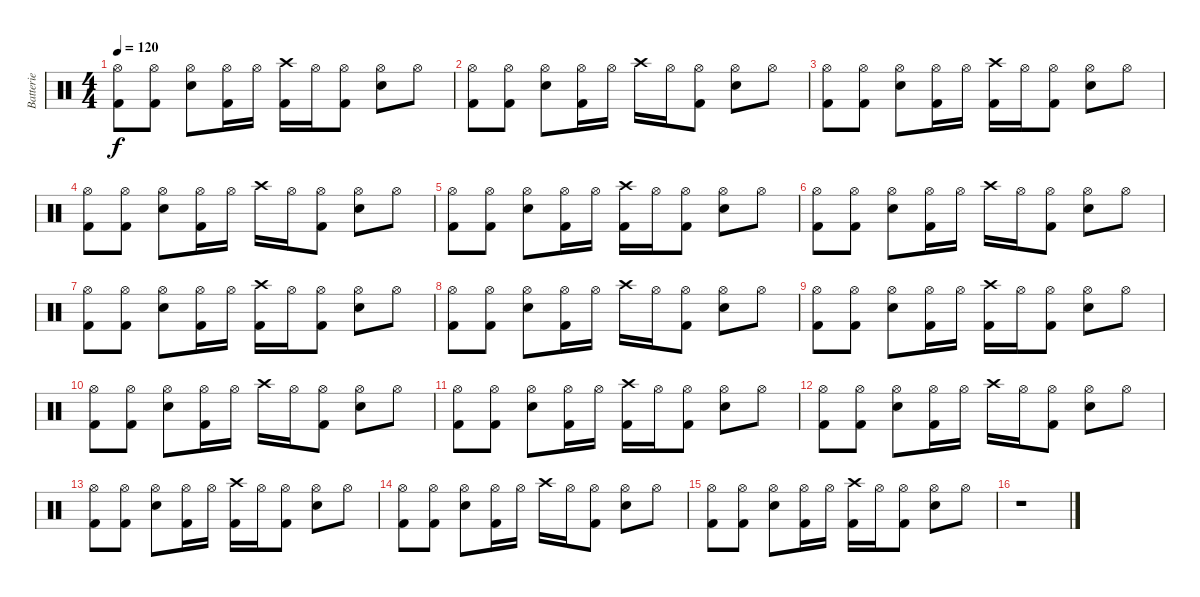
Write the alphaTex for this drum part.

\track ("Batterie" "Batterie") {instrument percussion}
\staff {score}
\articulation defaults
\ts (4 4)
\tempo 120
\clef neutral
\ks c
("Hi-Hat (open)" "Kick (hit) 2").8{dy f} ("Hi-Hat (open)" "Kick (hit) 2").8 ("Hi-Hat (open)" "Snare (hit) 2").8 ("Hi-Hat (open)" "Kick (hit) 2").16 "Hi-Hat (open)".16 ("Crash high (hit)" "Kick (hit) 2").16 "Hi-Hat (open)".16 ("Hi-Hat (open)" "Kick (hit) 2").8 ("Hi-Hat (open)" "Snare (hit) 2").8 "Hi-Hat (open)".8 |
("Hi-Hat (open)" "Kick (hit) 2").8 ("Hi-Hat (open)" "Kick (hit) 2").8 ("Hi-Hat (open)" "Snare (hit) 2").8 ("Hi-Hat (open)" "Kick (hit) 2").16 "Hi-Hat (open)".16 "Crash high (hit)".16 "Hi-Hat (open)".16 ("Hi-Hat (open)" "Kick (hit) 2").8 ("Hi-Hat (open)" "Snare (hit) 2").8 "Hi-Hat (open)".8 |
("Hi-Hat (open)" "Kick (hit) 2").8 ("Hi-Hat (open)" "Kick (hit) 2").8 ("Hi-Hat (open)" "Snare (hit) 2").8 ("Hi-Hat (open)" "Kick (hit) 2").16 "Hi-Hat (open)".16 ("Crash high (hit)" "Kick (hit) 2").16 "Hi-Hat (open)".16 ("Hi-Hat (open)" "Kick (hit) 2").8 ("Hi-Hat (open)" "Snare (hit) 2").8 "Hi-Hat (open)".8 |
("Hi-Hat (open)" "Kick (hit) 2").8 ("Hi-Hat (open)" "Kick (hit) 2").8 ("Hi-Hat (open)" "Snare (hit) 2").8 ("Hi-Hat (open)" "Kick (hit) 2").16 "Hi-Hat (open)".16 "Crash high (hit)".16 "Hi-Hat (open)".16 ("Hi-Hat (open)" "Kick (hit) 2").8 ("Hi-Hat (open)" "Snare (hit) 2").8 "Hi-Hat (open)".8 |
("Hi-Hat (open)" "Kick (hit) 2").8 ("Hi-Hat (open)" "Kick (hit) 2").8 ("Hi-Hat (open)" "Snare (hit) 2").8 ("Hi-Hat (open)" "Kick (hit) 2").16 "Hi-Hat (open)".16 ("Crash high (hit)" "Kick (hit) 2").16 "Hi-Hat (open)".16 ("Hi-Hat (open)" "Kick (hit) 2").8 ("Hi-Hat (open)" "Snare (hit) 2").8 "Hi-Hat (open)".8 |
("Hi-Hat (open)" "Kick (hit) 2").8 ("Hi-Hat (open)" "Kick (hit) 2").8 ("Hi-Hat (open)" "Snare (hit) 2").8 ("Hi-Hat (open)" "Kick (hit) 2").16 "Hi-Hat (open)".16 "Crash high (hit)".16 "Hi-Hat (open)".16 ("Hi-Hat (open)" "Kick (hit) 2").8 ("Hi-Hat (open)" "Snare (hit) 2").8 "Hi-Hat (open)".8 |
("Hi-Hat (open)" "Kick (hit) 2").8 ("Hi-Hat (open)" "Kick (hit) 2").8 ("Hi-Hat (open)" "Snare (hit) 2").8 ("Hi-Hat (open)" "Kick (hit) 2").16 "Hi-Hat (open)".16 ("Crash high (hit)" "Kick (hit) 2").16 "Hi-Hat (open)".16 ("Hi-Hat (open)" "Kick (hit) 2").8 ("Hi-Hat (open)" "Snare (hit) 2").8 "Hi-Hat (open)".8 |
("Hi-Hat (open)" "Kick (hit) 2").8 ("Hi-Hat (open)" "Kick (hit) 2").8 ("Hi-Hat (open)" "Snare (hit) 2").8 ("Hi-Hat (open)" "Kick (hit) 2").16 "Hi-Hat (open)".16 "Crash high (hit)".16 "Hi-Hat (open)".16 ("Hi-Hat (open)" "Kick (hit) 2").8 ("Hi-Hat (open)" "Snare (hit) 2").8 "Hi-Hat (open)".8 |
("Hi-Hat (open)" "Kick (hit) 2").8 ("Hi-Hat (open)" "Kick (hit) 2").8 ("Hi-Hat (open)" "Snare (hit) 2").8 ("Hi-Hat (open)" "Kick (hit) 2").16 "Hi-Hat (open)".16 ("Crash high (hit)" "Kick (hit) 2").16 "Hi-Hat (open)".16 ("Hi-Hat (open)" "Kick (hit) 2").8 ("Hi-Hat (open)" "Snare (hit) 2").8 "Hi-Hat (open)".8 |
("Hi-Hat (open)" "Kick (hit) 2").8 ("Hi-Hat (open)" "Kick (hit) 2").8 ("Hi-Hat (open)" "Snare (hit) 2").8 ("Hi-Hat (open)" "Kick (hit) 2").16 "Hi-Hat (open)".16 "Crash high (hit)".16 "Hi-Hat (open)".16 ("Hi-Hat (open)" "Kick (hit) 2").8 ("Hi-Hat (open)" "Snare (hit) 2").8 "Hi-Hat (open)".8 |
("Hi-Hat (open)" "Kick (hit) 2").8 ("Hi-Hat (open)" "Kick (hit) 2").8 ("Hi-Hat (open)" "Snare (hit) 2").8 ("Hi-Hat (open)" "Kick (hit) 2").16 "Hi-Hat (open)".16 ("Crash high (hit)" "Kick (hit) 2").16 "Hi-Hat (open)".16 ("Hi-Hat (open)" "Kick (hit) 2").8 ("Hi-Hat (open)" "Snare (hit) 2").8 "Hi-Hat (open)".8 |
("Hi-Hat (open)" "Kick (hit) 2").8 ("Hi-Hat (open)" "Kick (hit) 2").8 ("Hi-Hat (open)" "Snare (hit) 2").8 ("Hi-Hat (open)" "Kick (hit) 2").16 "Hi-Hat (open)".16 "Crash high (hit)".16 "Hi-Hat (open)".16 ("Hi-Hat (open)" "Kick (hit) 2").8 ("Hi-Hat (open)" "Snare (hit) 2").8 "Hi-Hat (open)".8 |
("Hi-Hat (open)" "Kick (hit) 2").8 ("Hi-Hat (open)" "Kick (hit) 2").8 ("Hi-Hat (open)" "Snare (hit) 2").8 ("Hi-Hat (open)" "Kick (hit) 2").16 "Hi-Hat (open)".16 ("Crash high (hit)" "Kick (hit) 2").16 "Hi-Hat (open)".16 ("Hi-Hat (open)" "Kick (hit) 2").8 ("Hi-Hat (open)" "Snare (hit) 2").8 "Hi-Hat (open)".8 |
("Hi-Hat (open)" "Kick (hit) 2").8 ("Hi-Hat (open)" "Kick (hit) 2").8 ("Hi-Hat (open)" "Snare (hit) 2").8 ("Hi-Hat (open)" "Kick (hit) 2").16 "Hi-Hat (open)".16 "Crash high (hit)".16 "Hi-Hat (open)".16 ("Hi-Hat (open)" "Kick (hit) 2").8 ("Hi-Hat (open)" "Snare (hit) 2").8 "Hi-Hat (open)".8 |
("Hi-Hat (open)" "Kick (hit) 2").8 ("Hi-Hat (open)" "Kick (hit) 2").8 ("Hi-Hat (open)" "Snare (hit) 2").8 ("Hi-Hat (open)" "Kick (hit) 2").16 "Hi-Hat (open)".16 ("Crash high (hit)" "Kick (hit) 2").16 "Hi-Hat (open)".16 ("Hi-Hat (open)" "Kick (hit) 2").8 ("Hi-Hat (open)" "Snare (hit) 2").8 "Hi-Hat (open)".8 |
r.1
